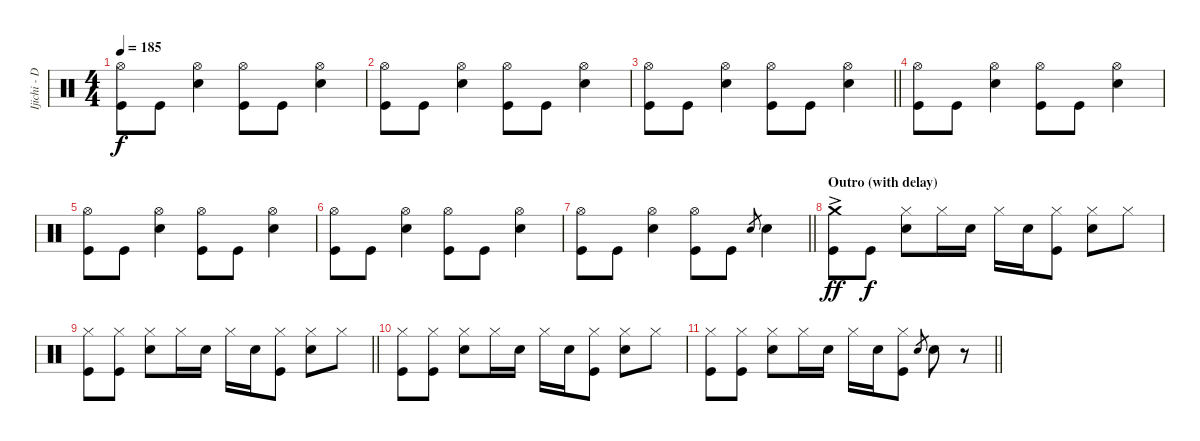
\track ("Ijichi - Drums" "Ijichi - D") {instrument percussion}
\staff
\articulation defaults
\ts (4 4)
\tempo 185
\clef neutral
\ks c
("Hi-Hat (open)" "Kick (hit)").8{dy f} "Kick (hit)".8 ("Hi-Hat (open)" "Electric Snare (hit)").4 ("Hi-Hat (open)" "Kick (hit)").8 "Kick (hit)".8 ("Hi-Hat (open)" "Electric Snare (hit)").4 |
("Hi-Hat (open)" "Kick (hit)").8 "Kick (hit)".8 ("Hi-Hat (open)" "Electric Snare (hit)").4 ("Hi-Hat (open)" "Kick (hit)").8 "Kick (hit)".8 ("Hi-Hat (open)" "Electric Snare (hit)").4 |
\barLineRight lightlight
("Hi-Hat (open)" "Kick (hit)").8 "Kick (hit)".8 ("Hi-Hat (open)" "Electric Snare (hit)").4 ("Hi-Hat (open)" "Kick (hit)").8 "Kick (hit)".8 ("Hi-Hat (open)" "Electric Snare (hit)").4 |
("Hi-Hat (open)" "Kick (hit)").8 "Kick (hit)".8 ("Hi-Hat (open)" "Electric Snare (hit)").4 ("Hi-Hat (open)" "Kick (hit)").8 "Kick (hit)".8 ("Hi-Hat (open)" "Electric Snare (hit)").4 |
("Hi-Hat (open)" "Kick (hit)").8 "Kick (hit)".8 ("Hi-Hat (open)" "Electric Snare (hit)").4 ("Hi-Hat (open)" "Kick (hit)").8 "Kick (hit)".8 ("Hi-Hat (open)" "Electric Snare (hit)").4 |
("Hi-Hat (open)" "Kick (hit)").8 "Kick (hit)".8 ("Hi-Hat (open)" "Electric Snare (hit)").4 ("Hi-Hat (open)" "Kick (hit)").8 "Kick (hit)".8 ("Hi-Hat (open)" "Electric Snare (hit)").4 |
\barLineRight lightlight
("Hi-Hat (open)" "Kick (hit)").8 "Kick (hit)".8 ("Hi-Hat (open)" "Electric Snare (hit)").4 ("Hi-Hat (open)" "Kick (hit)").8 "Kick (hit)".8 "Electric Snare (hit)".8{gr} "Electric Snare (hit)".4 |
\section ("" "Outro (with delay)")
("Crash medium (hit)"{ac} "Kick (hit)").8{dy ff} "Kick (hit)".8{dy f} ("Hi-Hat (closed)" "Electric Snare (hit)").8 "Hi-Hat (closed)".16 "Electric Snare (hit)".16 "Hi-Hat (closed)".16 "Electric Snare (hit)".16 ("Hi-Hat (closed)" "Kick (hit)").8 ("Hi-Hat (closed)" "Electric Snare (hit)").8 "Hi-Hat (closed)".8 |
\barLineRight lightlight
("Hi-Hat (closed)" "Kick (hit)").8 ("Hi-Hat (closed)" "Kick (hit)").8 ("Hi-Hat (closed)" "Electric Snare (hit)").8 "Hi-Hat (closed)".16 "Electric Snare (hit)".16 "Hi-Hat (closed)".16 "Electric Snare (hit)".16 ("Hi-Hat (closed)" "Kick (hit)").8 ("Hi-Hat (closed)" "Electric Snare (hit)").8 "Hi-Hat (closed)".8 |
("Hi-Hat (closed)" "Kick (hit)").8 ("Hi-Hat (closed)" "Kick (hit)").8 ("Hi-Hat (closed)" "Electric Snare (hit)").8 "Hi-Hat (closed)".16 "Electric Snare (hit)".16 "Hi-Hat (closed)".16 "Electric Snare (hit)".16 ("Hi-Hat (closed)" "Kick (hit)").8 ("Hi-Hat (closed)" "Electric Snare (hit)").8 "Hi-Hat (closed)".8 |
\barLineRight lightlight
("Hi-Hat (closed)" "Kick (hit)").8 ("Hi-Hat (closed)" "Kick (hit)").8 ("Hi-Hat (closed)" "Electric Snare (hit)").8 "Hi-Hat (closed)".16 "Electric Snare (hit)".16 "Hi-Hat (closed)".16 "Electric Snare (hit)".16 ("Hi-Hat (closed)" "Kick (hit)").8 "Electric Snare (hit)".8{gr} "Electric Snare (hit)".8 r.8
